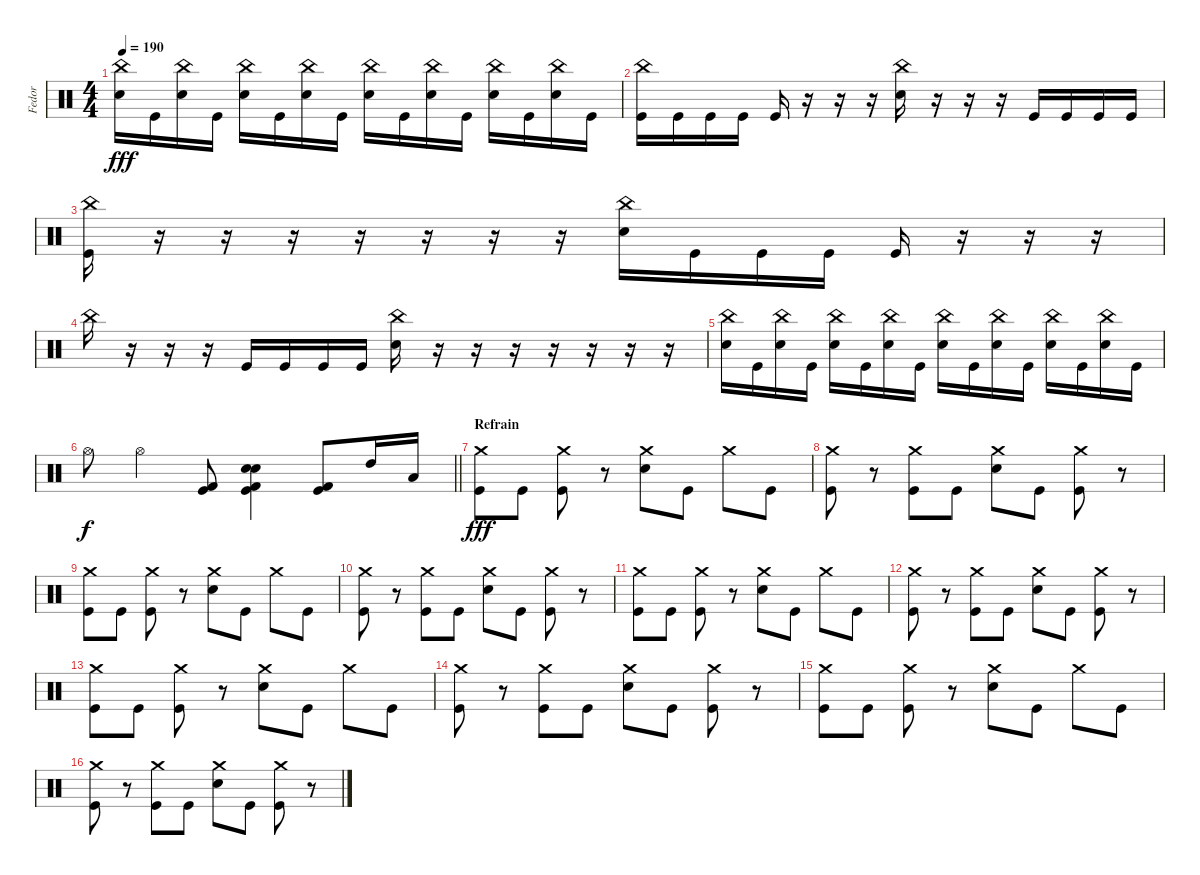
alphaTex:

\track ("Fedor" "Fedor") {instrument percussion}
\staff {score}
\articulation defaults
\ts (4 4)
\tempo 190
\clef neutral
\ks c
("China (hit)" "Electric Snare (hit)").16{dy fff} "Kick (hit)".16 ("China (hit)" "Electric Snare (hit)").16 "Kick (hit)".16 ("China (hit)" "Electric Snare (hit)").16 "Kick (hit)".16 ("China (hit)" "Electric Snare (hit)").16 "Kick (hit)".16 ("China (hit)" "Electric Snare (hit)").16 "Kick (hit)".16 ("China (hit)" "Electric Snare (hit)").16 "Kick (hit)".16 ("China (hit)" "Electric Snare (hit)").16 "Kick (hit)".16 ("China (hit)" "Electric Snare (hit)").16 "Kick (hit)".16 |
("China (hit)" "Kick (hit)").16 "Kick (hit)".16 "Kick (hit)".16 "Kick (hit)".16 "Kick (hit)".16 r.16 r.16 r.16 ("China (hit)" "Electric Snare (hit)").16 r.16 r.16 r.16 "Kick (hit)".16 "Kick (hit)".16 "Kick (hit)".16 "Kick (hit)".16 |
("China (hit)" "Kick (hit)").16 r.16 r.16 r.16 r.16 r.16 r.16 r.16 ("China (hit)" "Electric Snare (hit)").16 "Kick (hit)".16 "Kick (hit)".16 "Kick (hit)".16 "Kick (hit)".16 r.16 r.16 r.16 |
"China (hit)".16 r.16 r.16 r.16 "Kick (hit)".16 "Kick (hit)".16 "Kick (hit)".16 "Kick (hit)".16 ("China (hit)" "Electric Snare (hit)").16 r.16 r.16 r.16 r.16 r.16 r.16 r.16 |
("China (hit)" "Electric Snare (hit)").16 "Kick (hit)".16 ("China (hit)" "Electric Snare (hit)").16 "Kick (hit)".16 ("China (hit)" "Electric Snare (hit)").16 "Kick (hit)".16 ("China (hit)" "Electric Snare (hit)").16 "Kick (hit)".16 ("China (hit)" "Electric Snare (hit)").16 "Kick (hit)".16 ("China (hit)" "Electric Snare (hit)").16 "Kick (hit)".16 ("China (hit)" "Electric Snare (hit)").16 "Kick (hit)".16 ("China (hit)" "Electric Snare (hit)").16 "Kick (hit)".16 |
\barLineRight lightlight "Hi-Hat (open)".8{dy f} "Hi-Hat (open)".4
("Kick (hit) 2" "Kick (hit)").8 ("Electric Snare (hit)" "Snare (hit) 2" "Kick (hit) 2" "Kick (hit)").4 ("Kick (hit) 2" "Kick (hit)").8 "High Tom (hit)".16 "Low Tom (hit)".16 |
\section ("" "Refrain")
("Crash medium (hit)" "Kick (hit)").8{dy fff} "Kick (hit)".8 ("Crash medium (hit)" "Kick (hit)").8 r.8 ("Crash medium (hit)" "Electric Snare (hit)").8 "Kick (hit)".8 "Crash medium (hit)".8 "Kick (hit)".8 |
("Crash medium (hit)" "Kick (hit)").8 r.8 ("Crash medium (hit)" "Kick (hit)").8 "Kick (hit)".8 ("Crash medium (hit)" "Electric Snare (hit)").8 "Kick (hit)".8 ("Crash medium (hit)" "Kick (hit)").8 r.8 |
("Crash medium (hit)" "Kick (hit)").8 "Kick (hit)".8 ("Crash medium (hit)" "Kick (hit)").8 r.8 ("Crash medium (hit)" "Electric Snare (hit)").8 "Kick (hit)".8 "Crash medium (hit)".8 "Kick (hit)".8 |
("Crash medium (hit)" "Kick (hit)").8 r.8 ("Crash medium (hit)" "Kick (hit)").8 "Kick (hit)".8 ("Crash medium (hit)" "Electric Snare (hit)").8 "Kick (hit)".8 ("Crash medium (hit)" "Kick (hit)").8 r.8 |
("Crash medium (hit)" "Kick (hit)").8 "Kick (hit)".8 ("Crash medium (hit)" "Kick (hit)").8 r.8 ("Crash medium (hit)" "Electric Snare (hit)").8 "Kick (hit)".8 "Crash medium (hit)".8 "Kick (hit)".8 |
("Crash medium (hit)" "Kick (hit)").8 r.8 ("Crash medium (hit)" "Kick (hit)").8 "Kick (hit)".8 ("Crash medium (hit)" "Electric Snare (hit)").8 "Kick (hit)".8 ("Crash medium (hit)" "Kick (hit)").8 r.8 |
("Crash medium (hit)" "Kick (hit)").8 "Kick (hit)".8 ("Crash medium (hit)" "Kick (hit)").8 r.8 ("Crash medium (hit)" "Electric Snare (hit)").8 "Kick (hit)".8 "Crash medium (hit)".8 "Kick (hit)".8 |
("Crash medium (hit)" "Kick (hit)").8 r.8 ("Crash medium (hit)" "Kick (hit)").8 "Kick (hit)".8 ("Crash medium (hit)" "Electric Snare (hit)").8 "Kick (hit)".8 ("Crash medium (hit)" "Kick (hit)").8 r.8 |
("Crash medium (hit)" "Kick (hit)").8 "Kick (hit)".8 ("Crash medium (hit)" "Kick (hit)").8 r.8 ("Crash medium (hit)" "Electric Snare (hit)").8 "Kick (hit)".8 "Crash medium (hit)".8 "Kick (hit)".8 |
("Crash medium (hit)" "Kick (hit)").8 r.8 ("Crash medium (hit)" "Kick (hit)").8 "Kick (hit)".8 ("Crash medium (hit)" "Electric Snare (hit)").8 "Kick (hit)".8 ("Crash medium (hit)" "Kick (hit)").8 r.8
